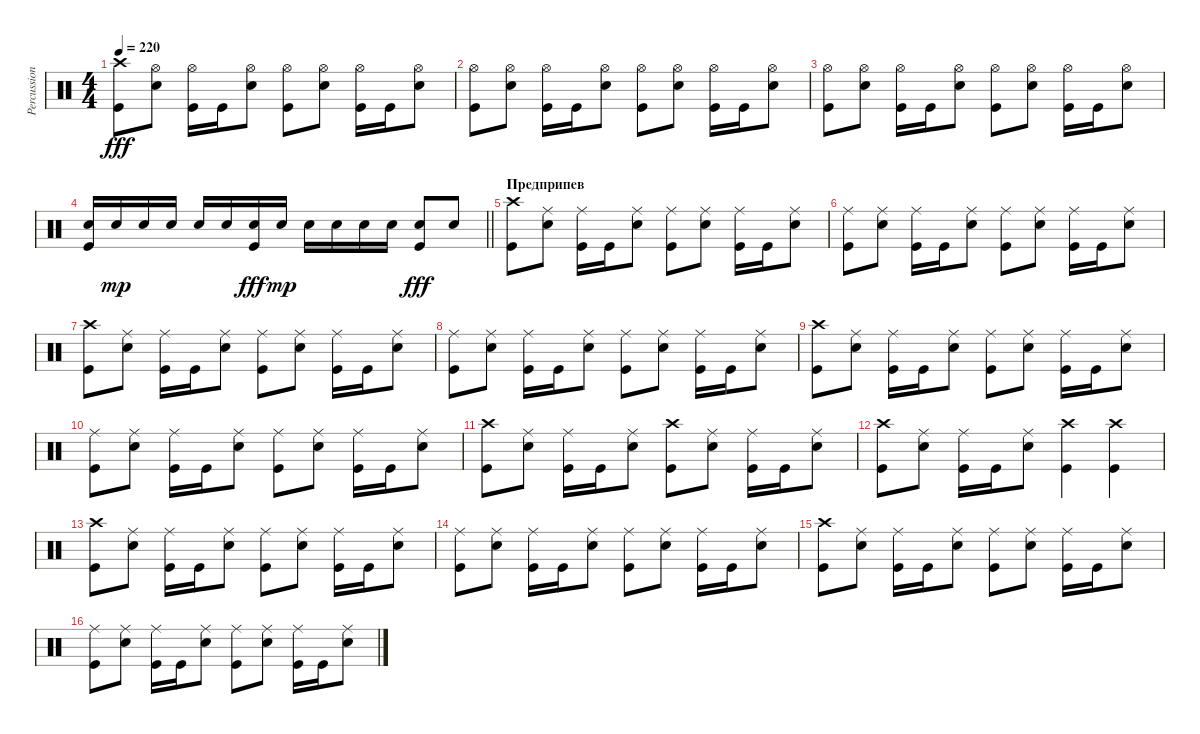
\track ("Percussion" "Percussion") {instrument percussion}
\staff {score}
\articulation defaults
\ts (4 4)
\tempo 220
\clef neutral
\ks c
("Crash high (hit)" "Kick (hit)").8{dy fff} ("Hi-Hat (open)" "Snare (hit) 2").8 ("Hi-Hat (open)" "Kick (hit)").16 "Kick (hit)".16 ("Hi-Hat (open)" "Snare (hit) 2").8 ("Hi-Hat (open)" "Kick (hit)").8 ("Hi-Hat (open)" "Snare (hit) 2").8 ("Hi-Hat (open)" "Kick (hit)").16 "Kick (hit)".16 ("Hi-Hat (open)" "Snare (hit) 2").8 |
("Hi-Hat (open)" "Kick (hit)").8 ("Hi-Hat (open)" "Snare (hit) 2").8 ("Hi-Hat (open)" "Kick (hit)").16 "Kick (hit)".16 ("Hi-Hat (open)" "Snare (hit) 2").8 ("Hi-Hat (open)" "Kick (hit)").8 ("Hi-Hat (open)" "Snare (hit) 2").8 ("Hi-Hat (open)" "Kick (hit)").16 "Kick (hit)".16 ("Hi-Hat (open)" "Snare (hit) 2").8 |
("Hi-Hat (open)" "Kick (hit)").8 ("Hi-Hat (open)" "Snare (hit) 2").8 ("Hi-Hat (open)" "Kick (hit)").16 "Kick (hit)".16 ("Hi-Hat (open)" "Snare (hit) 2").8 ("Hi-Hat (open)" "Kick (hit)").8 ("Hi-Hat (open)" "Snare (hit) 2").8 ("Hi-Hat (open)" "Kick (hit)").16 "Kick (hit)".16 ("Hi-Hat (open)" "Snare (hit) 2").8 |
\barLineRight lightlight
("Snare (hit) 2" "Kick (hit)").16 "Snare (hit) 2".16{dy mp} "Snare (hit) 2".16 "Snare (hit) 2".16 "Snare (hit) 2".16 "Snare (hit) 2".16 ("Snare (hit) 2" "Kick (hit)").16{dy fff} "Snare (hit) 2".16{dy mp} "Snare (hit) 2".16 "Snare (hit) 2".16 "Snare (hit) 2".16 "Snare (hit) 2".16 ("Snare (hit) 2" "Kick (hit)").8{dy fff} "Snare (hit) 2".8 |
\section ("" "Предприпев")
("Crash high (hit)" "Kick (hit)").8 ("Ride (middle)" "Snare (hit) 2").8 ("Ride (middle)" "Kick (hit)").16 "Kick (hit)".16 ("Ride (middle)" "Snare (hit) 2").8 ("Ride (middle)" "Kick (hit)").8 ("Ride (middle)" "Snare (hit) 2").8 ("Ride (middle)" "Kick (hit)").16 "Kick (hit)".16 ("Ride (middle)" "Snare (hit) 2").8 |
("Ride (middle)" "Kick (hit)").8 ("Ride (middle)" "Snare (hit) 2").8 ("Ride (middle)" "Kick (hit)").16 "Kick (hit)".16 ("Ride (middle)" "Snare (hit) 2").8 ("Ride (middle)" "Kick (hit)").8 ("Ride (middle)" "Snare (hit) 2").8 ("Ride (middle)" "Kick (hit)").16 "Kick (hit)".16 ("Ride (middle)" "Snare (hit) 2").8 |
("Crash high (hit)" "Kick (hit)").8 ("Ride (middle)" "Snare (hit) 2").8 ("Ride (middle)" "Kick (hit)").16 "Kick (hit)".16 ("Ride (middle)" "Snare (hit) 2").8 ("Ride (middle)" "Kick (hit)").8 ("Ride (middle)" "Snare (hit) 2").8 ("Ride (middle)" "Kick (hit)").16 "Kick (hit)".16 ("Ride (middle)" "Snare (hit) 2").8 |
("Ride (middle)" "Kick (hit)").8 ("Ride (middle)" "Snare (hit) 2").8 ("Ride (middle)" "Kick (hit)").16 "Kick (hit)".16 ("Ride (middle)" "Snare (hit) 2").8 ("Ride (middle)" "Kick (hit)").8 ("Ride (middle)" "Snare (hit) 2").8 ("Ride (middle)" "Kick (hit)").16 "Kick (hit)".16 ("Ride (middle)" "Snare (hit) 2").8 |
("Crash high (hit)" "Kick (hit)").8 ("Ride (middle)" "Snare (hit) 2").8 ("Ride (middle)" "Kick (hit)").16 "Kick (hit)".16 ("Ride (middle)" "Snare (hit) 2").8 ("Ride (middle)" "Kick (hit)").8 ("Ride (middle)" "Snare (hit) 2").8 ("Ride (middle)" "Kick (hit)").16 "Kick (hit)".16 ("Ride (middle)" "Snare (hit) 2").8 |
("Ride (middle)" "Kick (hit)").8 ("Ride (middle)" "Snare (hit) 2").8 ("Ride (middle)" "Kick (hit)").16 "Kick (hit)".16 ("Ride (middle)" "Snare (hit) 2").8 ("Ride (middle)" "Kick (hit)").8 ("Ride (middle)" "Snare (hit) 2").8 ("Ride (middle)" "Kick (hit)").16 "Kick (hit)".16 ("Ride (middle)" "Snare (hit) 2").8 |
("Crash high (hit)" "Kick (hit)").8 ("Ride (middle)" "Snare (hit) 2").8 ("Ride (middle)" "Kick (hit)").16 "Kick (hit)".16 ("Ride (middle)" "Snare (hit) 2").8 ("Crash high (hit)" "Kick (hit)").8 ("Ride (middle)" "Snare (hit) 2").8 ("Ride (middle)" "Kick (hit)").16 "Kick (hit)".16 ("Ride (middle)" "Snare (hit) 2").8 |
("Crash high (hit)" "Kick (hit)").8 ("Ride (middle)" "Snare (hit) 2").8 ("Ride (middle)" "Kick (hit)").16 "Kick (hit)".16 ("Ride (middle)" "Snare (hit) 2").8 ("Crash high (hit)" "Kick (hit)").4 ("Crash high (hit)" "Kick (hit)").4 |
("Crash high (hit)" "Kick (hit)").8 ("Ride (middle)" "Snare (hit) 2").8 ("Ride (middle)" "Kick (hit)").16 "Kick (hit)".16 ("Ride (middle)" "Snare (hit) 2").8 ("Ride (middle)" "Kick (hit)").8 ("Ride (middle)" "Snare (hit) 2").8 ("Ride (middle)" "Kick (hit)").16 "Kick (hit)".16 ("Ride (middle)" "Snare (hit) 2").8 |
("Ride (middle)" "Kick (hit)").8 ("Ride (middle)" "Snare (hit) 2").8 ("Ride (middle)" "Kick (hit)").16 "Kick (hit)".16 ("Ride (middle)" "Snare (hit) 2").8 ("Ride (middle)" "Kick (hit)").8 ("Ride (middle)" "Snare (hit) 2").8 ("Ride (middle)" "Kick (hit)").16 "Kick (hit)".16 ("Ride (middle)" "Snare (hit) 2").8 |
("Crash high (hit)" "Kick (hit)").8 ("Ride (middle)" "Snare (hit) 2").8 ("Ride (middle)" "Kick (hit)").16 "Kick (hit)".16 ("Ride (middle)" "Snare (hit) 2").8 ("Ride (middle)" "Kick (hit)").8 ("Ride (middle)" "Snare (hit) 2").8 ("Ride (middle)" "Kick (hit)").16 "Kick (hit)".16 ("Ride (middle)" "Snare (hit) 2").8 |
("Ride (middle)" "Kick (hit)").8 ("Ride (middle)" "Snare (hit) 2").8 ("Ride (middle)" "Kick (hit)").16 "Kick (hit)".16 ("Ride (middle)" "Snare (hit) 2").8 ("Ride (middle)" "Kick (hit)").8 ("Ride (middle)" "Snare (hit) 2").8 ("Ride (middle)" "Kick (hit)").16 "Kick (hit)".16 ("Ride (middle)" "Snare (hit) 2").8
